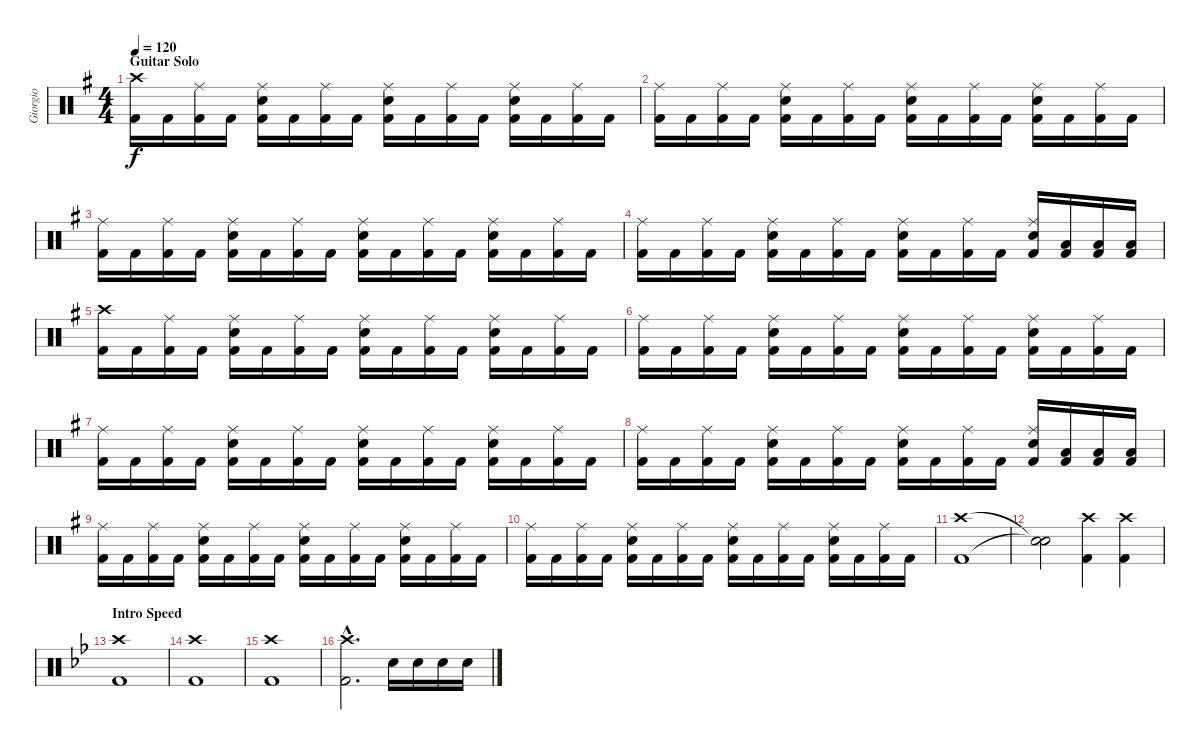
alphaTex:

\track ("Giorgio" "Giorgio") {instrument percussion}
\staff {score}
\articulation defaults
\ts (4 4)
\section ("" "Guitar Solo")
\tempo 120
\clef neutral
\ks eminor
("Crash high (hit)" "Kick (hit) 2").16{dy f} "Kick (hit) 2".16 ("Ride (middle)" "Kick (hit) 2").16 "Kick (hit) 2".16 ("Snare (hit) 2" "Ride (middle)" "Kick (hit) 2").16 "Kick (hit) 2".16 ("Ride (middle)" "Kick (hit) 2").16 "Kick (hit) 2".16 ("Snare (hit) 2" "Ride (middle)" "Kick (hit) 2").16 "Kick (hit) 2".16 ("Ride (middle)" "Kick (hit) 2").16 "Kick (hit) 2".16 ("Snare (hit) 2" "Ride (middle)" "Kick (hit) 2").16 "Kick (hit) 2".16 ("Ride (middle)" "Kick (hit) 2").16 "Kick (hit) 2".16 |
("Ride (middle)" "Kick (hit) 2").16 "Kick (hit) 2".16 ("Ride (middle)" "Kick (hit) 2").16 "Kick (hit) 2".16 ("Snare (hit) 2" "Ride (middle)" "Kick (hit) 2").16 "Kick (hit) 2".16 ("Ride (middle)" "Kick (hit) 2").16 "Kick (hit) 2".16 ("Snare (hit) 2" "Ride (middle)" "Kick (hit) 2").16 "Kick (hit) 2".16 ("Ride (middle)" "Kick (hit) 2").16 "Kick (hit) 2".16 ("Snare (hit) 2" "Ride (middle)" "Kick (hit) 2").16 "Kick (hit) 2".16 ("Ride (middle)" "Kick (hit) 2").16 "Kick (hit) 2".16 |
("Ride (middle)" "Kick (hit) 2").16 "Kick (hit) 2".16 ("Ride (middle)" "Kick (hit) 2").16 "Kick (hit) 2".16 ("Snare (hit) 2" "Ride (middle)" "Kick (hit) 2").16 "Kick (hit) 2".16 ("Ride (middle)" "Kick (hit) 2").16 "Kick (hit) 2".16 ("Snare (hit) 2" "Ride (middle)" "Kick (hit) 2").16 "Kick (hit) 2".16 ("Ride (middle)" "Kick (hit) 2").16 "Kick (hit) 2".16 ("Snare (hit) 2" "Ride (middle)" "Kick (hit) 2").16 "Kick (hit) 2".16 ("Ride (middle)" "Kick (hit) 2").16 "Kick (hit) 2".16 |
("Ride (middle)" "Kick (hit) 2").16 "Kick (hit) 2".16 ("Ride (middle)" "Kick (hit) 2").16 "Kick (hit) 2".16 ("Snare (hit) 2" "Ride (middle)" "Kick (hit) 2").16 "Kick (hit) 2".16 ("Ride (middle)" "Kick (hit) 2").16 "Kick (hit) 2".16 ("Snare (hit) 2" "Ride (middle)" "Kick (hit) 2").16 "Kick (hit) 2".16 ("Ride (middle)" "Kick (hit) 2").16 "Kick (hit) 2".16 ("Snare (hit) 2" "Ride (middle)" "Kick (hit) 2").16 ("Low Tom (hit)" "Kick (hit) 2").16 ("Low Tom (hit)" "Kick (hit) 2").16 ("Low Floor Tom (hit)" "Kick (hit) 2").16 |
("Crash high (hit)" "Kick (hit) 2").16 "Kick (hit) 2".16 ("Ride (middle)" "Kick (hit) 2").16 "Kick (hit) 2".16 ("Snare (hit) 2" "Ride (middle)" "Kick (hit) 2").16 "Kick (hit) 2".16 ("Ride (middle)" "Kick (hit) 2").16 "Kick (hit) 2".16 ("Snare (hit) 2" "Ride (middle)" "Kick (hit) 2").16 "Kick (hit) 2".16 ("Ride (middle)" "Kick (hit) 2").16 "Kick (hit) 2".16 ("Snare (hit) 2" "Ride (middle)" "Kick (hit) 2").16 "Kick (hit) 2".16 ("Ride (middle)" "Kick (hit) 2").16 "Kick (hit) 2".16 |
("Ride (middle)" "Kick (hit) 2").16 "Kick (hit) 2".16 ("Ride (middle)" "Kick (hit) 2").16 "Kick (hit) 2".16 ("Snare (hit) 2" "Ride (middle)" "Kick (hit) 2").16 "Kick (hit) 2".16 ("Ride (middle)" "Kick (hit) 2").16 "Kick (hit) 2".16 ("Snare (hit) 2" "Ride (middle)" "Kick (hit) 2").16 "Kick (hit) 2".16 ("Ride (middle)" "Kick (hit) 2").16 "Kick (hit) 2".16 ("Snare (hit) 2" "Ride (middle)" "Kick (hit) 2").16 "Kick (hit) 2".16 ("Ride (middle)" "Kick (hit) 2").16 "Kick (hit) 2".16 |
("Ride (middle)" "Kick (hit) 2").16 "Kick (hit) 2".16 ("Ride (middle)" "Kick (hit) 2").16 "Kick (hit) 2".16 ("Snare (hit) 2" "Ride (middle)" "Kick (hit) 2").16 "Kick (hit) 2".16 ("Ride (middle)" "Kick (hit) 2").16 "Kick (hit) 2".16 ("Snare (hit) 2" "Ride (middle)" "Kick (hit) 2").16 "Kick (hit) 2".16 ("Ride (middle)" "Kick (hit) 2").16 "Kick (hit) 2".16 ("Snare (hit) 2" "Ride (middle)" "Kick (hit) 2").16 "Kick (hit) 2".16 ("Ride (middle)" "Kick (hit) 2").16 "Kick (hit) 2".16 |
("Ride (middle)" "Kick (hit) 2").16 "Kick (hit) 2".16 ("Ride (middle)" "Kick (hit) 2").16 "Kick (hit) 2".16 ("Snare (hit) 2" "Ride (middle)" "Kick (hit) 2").16 "Kick (hit) 2".16 ("Ride (middle)" "Kick (hit) 2").16 "Kick (hit) 2".16 ("Snare (hit) 2" "Ride (middle)" "Kick (hit) 2").16 "Kick (hit) 2".16 ("Ride (middle)" "Kick (hit) 2").16 "Kick (hit) 2".16 ("Snare (hit) 2" "Ride (middle)" "Kick (hit) 2").16 ("Low Tom (hit)" "Kick (hit) 2").16 ("Low Tom (hit)" "Kick (hit) 2").16 ("Low Floor Tom (hit)" "Kick (hit) 2").16 |
("Ride (middle)" "Kick (hit) 2").16 "Kick (hit) 2".16 ("Ride (middle)" "Kick (hit) 2").16 "Kick (hit) 2".16 ("Snare (hit) 2" "Ride (middle)" "Kick (hit) 2").16 "Kick (hit) 2".16 ("Ride (middle)" "Kick (hit) 2").16 "Kick (hit) 2".16 ("Snare (hit) 2" "Ride (middle)" "Kick (hit) 2").16 "Kick (hit) 2".16 ("Ride (middle)" "Kick (hit) 2").16 "Kick (hit) 2".16 ("Snare (hit) 2" "Ride (middle)" "Kick (hit) 2").16 "Kick (hit) 2".16 ("Ride (middle)" "Kick (hit) 2").16 "Kick (hit) 2".16 |
("Ride (middle)" "Kick (hit) 2").16 "Kick (hit) 2".16 ("Ride (middle)" "Kick (hit) 2").16 "Kick (hit) 2".16 ("Snare (hit) 2" "Ride (middle)" "Kick (hit) 2").16 "Kick (hit) 2".16 ("Ride (middle)" "Kick (hit) 2").16 "Kick (hit) 2".16 ("Snare (hit) 2" "Ride (middle)" "Kick (hit) 2").16 "Kick (hit) 2".16 ("Ride (middle)" "Kick (hit) 2").16 "Kick (hit) 2".16 ("Snare (hit) 2" "Ride (middle)" "Kick (hit) 2").16 "Kick (hit) 2".16 ("Ride (middle)" "Kick (hit) 2").16 "Kick (hit) 2".16 |
("Crash high (hit)" "Kick (hit) 2").1 |
("Snare (hit)"{t} "Snare (hit)"{t}).2 ("Crash high (hit)" "Kick (hit) 2").4 ("Crash high (hit)" "Kick (hit) 2").4 |
\section ("" "Intro Speed")
\ks gminor
("Crash high (hit)" "Kick (hit) 2").1 |
("Crash high (hit)" "Kick (hit) 2").1 |
("Crash high (hit)" "Kick (hit) 2").1 |
("Crash high (hit)"{hac} "Kick (hit) 2"{hac}).2{d} "Snare (hit) 2".16 "Snare (hit) 2".16 "Snare (hit) 2".16 "Snare (hit) 2".16
